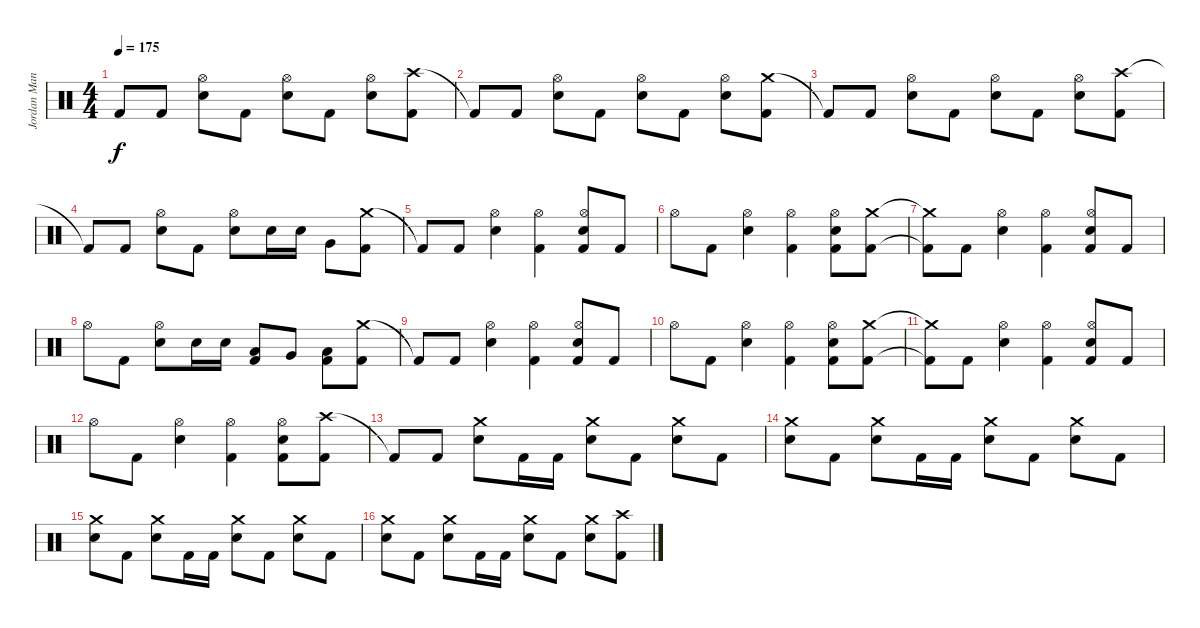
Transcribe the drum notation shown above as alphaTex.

\track ("Jordan Mancino" "Jordan Man") {instrument percussion}
\staff {score}
\articulation defaults
\ts (4 4)
\tempo 175
\clef neutral
\ks c "Kick (hit) 2"{t}.8{dy f} "Kick (hit) 2".8
("Hi-Hat (open)" "Electric Snare (hit)").8 "Kick (hit) 2".8 ("Hi-Hat (open)" "Electric Snare (hit)").8 "Kick (hit) 2".8 ("Hi-Hat (open)" "Electric Snare (hit)").8 ("Crash high (hit)" "Kick (hit) 2").8 |
"Kick (hit) 2"{t}.8 "Kick (hit) 2".8 ("Hi-Hat (open)" "Electric Snare (hit)").8 "Kick (hit) 2".8 ("Hi-Hat (open)" "Electric Snare (hit)").8 "Kick (hit) 2".8 ("Hi-Hat (open)" "Electric Snare (hit)").8 ("Crash medium (hit)" "Kick (hit) 2").8 |
"Kick (hit) 2"{t}.8 "Kick (hit) 2".8 ("Hi-Hat (open)" "Electric Snare (hit)").8 "Kick (hit) 2".8 ("Hi-Hat (open)" "Electric Snare (hit)").8 "Kick (hit) 2".8 ("Hi-Hat (open)" "Electric Snare (hit)").8 ("Crash high (hit)" "Kick (hit) 2").8 |
"Kick (hit) 2"{t}.8 "Kick (hit) 2".8 ("Hi-Hat (open)" "Electric Snare (hit)").8 "Kick (hit) 2".8 ("Hi-Hat (open)" "Electric Snare (hit)").8 "Electric Snare (hit)".16 "Electric Snare (hit)".16 "Very Low Tom (hit)".8 ("Crash medium (hit)" "Kick (hit) 2").8 |
"Kick (hit) 2"{t}.8 "Kick (hit) 2".8 ("Hi-Hat (open)" "Electric Snare (hit)").4 ("Hi-Hat (open)" "Kick (hit) 2").4 ("Hi-Hat (open)" "Electric Snare (hit)" "Kick (hit) 2").8 "Kick (hit) 2".8 |
"Hi-Hat (open)".8 "Kick (hit) 2".8 ("Hi-Hat (open)" "Electric Snare (hit)").4 ("Hi-Hat (open)" "Kick (hit) 2").4 ("Hi-Hat (open)" "Electric Snare (hit)" "Kick (hit) 2").8 ("Crash medium (hit)" "Kick (hit) 2").8 |
("Crash medium (hit)"{t} "Kick (hit) 2"{t}).8 "Kick (hit) 2".8 ("Hi-Hat (open)" "Electric Snare (hit)").4 ("Hi-Hat (open)" "Kick (hit) 2").4 ("Hi-Hat (open)" "Electric Snare (hit)" "Kick (hit) 2").8 "Kick (hit) 2".8 |
"Hi-Hat (open)".8 "Kick (hit) 2".8 ("Hi-Hat (open)" "Electric Snare (hit)").8 "Electric Snare (hit)".16 "Electric Snare (hit)".16 ("Low Tom (hit)" "Kick (hit) 2").8 "Very Low Tom (hit)".8 ("Low Floor Tom (hit)" "Kick (hit) 2").8 ("Crash medium (hit)" "Kick (hit) 2").8 |
"Kick (hit) 2"{t}.8 "Kick (hit) 2".8 ("Hi-Hat (open)" "Electric Snare (hit)").4 ("Hi-Hat (open)" "Kick (hit) 2").4 ("Hi-Hat (open)" "Electric Snare (hit)" "Kick (hit) 2").8 "Kick (hit) 2".8 |
"Hi-Hat (open)".8 "Kick (hit) 2".8 ("Hi-Hat (open)" "Electric Snare (hit)").4 ("Hi-Hat (open)" "Kick (hit) 2").4 ("Hi-Hat (open)" "Electric Snare (hit)" "Kick (hit) 2").8 ("Crash medium (hit)" "Kick (hit) 2").8 |
("Crash medium (hit)"{t} "Kick (hit) 2"{t}).8 "Kick (hit) 2".8 ("Hi-Hat (open)" "Electric Snare (hit)").4 ("Hi-Hat (open)" "Kick (hit) 2").4 ("Hi-Hat (open)" "Electric Snare (hit)" "Kick (hit) 2").8 "Kick (hit) 2".8 |
"Hi-Hat (open)".8 "Kick (hit) 2".8 ("Hi-Hat (open)" "Electric Snare (hit)").4 ("Hi-Hat (open)" "Kick (hit) 2").4 ("Hi-Hat (open)" "Electric Snare (hit)" "Kick (hit) 2").8 ("Crash high (hit)" "Kick (hit) 2").8 |
"Kick (hit) 2"{t}.8 "Kick (hit) 2".8 ("Crash medium (hit)" "Electric Snare (hit)").8 "Kick (hit) 2".16 "Kick (hit) 2".16 ("Crash medium (hit)" "Electric Snare (hit)").8 "Kick (hit) 2".8 ("Crash medium (hit)" "Electric Snare (hit)").8 "Kick (hit) 2".8 |
("Crash medium (hit)" "Electric Snare (hit)").8 "Kick (hit) 2".8 ("Crash medium (hit)" "Electric Snare (hit)").8 "Kick (hit) 2".16 "Kick (hit) 2".16 ("Crash medium (hit)" "Electric Snare (hit)").8 "Kick (hit) 2".8 ("Crash medium (hit)" "Electric Snare (hit)").8 "Kick (hit) 2".8 |
("Crash medium (hit)" "Electric Snare (hit)").8 "Kick (hit) 2".8 ("Crash medium (hit)" "Electric Snare (hit)").8 "Kick (hit) 2".16 "Kick (hit) 2".16 ("Crash medium (hit)" "Electric Snare (hit)").8 "Kick (hit) 2".8 ("Crash medium (hit)" "Electric Snare (hit)").8 "Kick (hit) 2".8 |
("Crash medium (hit)" "Electric Snare (hit)").8 "Kick (hit) 2".8 ("Crash medium (hit)" "Electric Snare (hit)").8 "Kick (hit) 2".16 "Kick (hit) 2".16 ("Crash medium (hit)" "Electric Snare (hit)").8 "Kick (hit) 2".8 ("Crash medium (hit)" "Electric Snare (hit)").8 ("Crash high (hit)" "Kick (hit) 2").8
